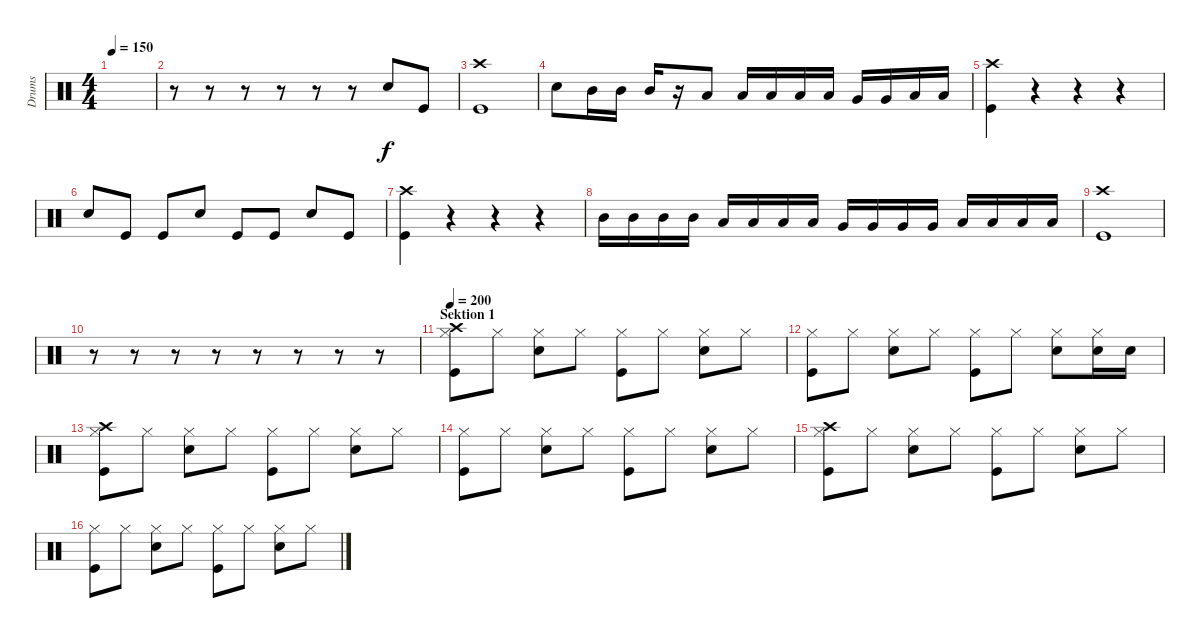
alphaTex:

\track ("Drums" "Drums") {instrument percussion}
\staff {score}
\articulation defaults
\ts (4 4)
\tempo 150
\clef neutral
\ks c
|
r.8 r.8 r.8 r.8 r.8 r.8 "Electric Snare (hit)".8 "Kick (hit)".8 |
("Crash high (hit)" "Kick (hit)").1 |
"Electric Snare (hit)".8 "Mid Tom (hit)".16 "Mid Tom (hit)".16 "Mid Tom (hit)".16 r.16 "Low Tom (hit)".8 "Low Tom (hit)".16 "Low Tom (hit)".16 "Low Tom (hit)".16 "Low Tom (hit)".16 "Very Low Tom (hit)".16 "Very Low Tom (hit)".16 "Low Floor Tom (hit)".16 "Low Floor Tom (hit)".16 |
("Crash high (hit)" "Kick (hit)").4 r.4 r.4 r.4 |
"Electric Snare (hit)".8 "Kick (hit)".8 "Kick (hit)".8 "Electric Snare (hit)".8 "Kick (hit)".8 "Kick (hit)".8 "Electric Snare (hit)".8 "Kick (hit)".8 |
("Crash high (hit)" "Kick (hit)").4 r.4 r.4 r.4 |
"Mid Tom (hit)".16 "Mid Tom (hit)".16 "Mid Tom (hit)".16 "Mid Tom (hit)".16 "Low Tom (hit)".16 "Low Tom (hit)".16 "Low Tom (hit)".16 "Low Tom (hit)".16 "Very Low Tom (hit)".16 "Very Low Tom (hit)".16 "Very Low Tom (hit)".16 "Very Low Tom (hit)".16 "Low Floor Tom (hit)".16 "Low Floor Tom (hit)".16 "Low Floor Tom (hit)".16 "Low Floor Tom (hit)".16 |
("Crash high (hit)" "Kick (hit)").1 |
r.8 r.8 r.8 r.8 r.8 r.8 r.8 r.8 |
\section ("" "Sektion 1")
\tempo 200
("Hi-Hat (closed)" "Crash high (hit)" "Kick (hit)").8 "Hi-Hat (closed)".8 ("Hi-Hat (closed)" "Electric Snare (hit)").8 "Hi-Hat (closed)".8 ("Hi-Hat (closed)" "Kick (hit)").8 "Hi-Hat (closed)".8 ("Hi-Hat (closed)" "Electric Snare (hit)").8 "Hi-Hat (closed)".8 |
("Hi-Hat (closed)" "Kick (hit)").8 "Hi-Hat (closed)".8 ("Hi-Hat (closed)" "Electric Snare (hit)").8 "Hi-Hat (closed)".8 ("Hi-Hat (closed)" "Kick (hit)").8 "Hi-Hat (closed)".8 ("Hi-Hat (closed)" "Electric Snare (hit)").8 ("Hi-Hat (closed)" "Electric Snare (hit)").16 "Electric Snare (hit)".16 |
("Hi-Hat (closed)" "Crash high (hit)" "Kick (hit)").8 "Hi-Hat (closed)".8 ("Hi-Hat (closed)" "Electric Snare (hit)").8 "Hi-Hat (closed)".8 ("Hi-Hat (closed)" "Kick (hit)").8 "Hi-Hat (closed)".8 ("Hi-Hat (closed)" "Electric Snare (hit)").8 "Hi-Hat (closed)".8 |
("Hi-Hat (closed)" "Kick (hit)").8 "Hi-Hat (closed)".8 ("Hi-Hat (closed)" "Electric Snare (hit)").8 "Hi-Hat (closed)".8 ("Hi-Hat (closed)" "Kick (hit)").8 "Hi-Hat (closed)".8 ("Hi-Hat (closed)" "Electric Snare (hit)").8 "Hi-Hat (closed)".8 |
("Hi-Hat (closed)" "Crash high (hit)" "Kick (hit)").8 "Hi-Hat (closed)".8 ("Hi-Hat (closed)" "Electric Snare (hit)").8 "Hi-Hat (closed)".8 ("Hi-Hat (closed)" "Kick (hit)").8 "Hi-Hat (closed)".8 ("Hi-Hat (closed)" "Electric Snare (hit)").8 "Hi-Hat (closed)".8 |
("Hi-Hat (closed)" "Kick (hit)").8 "Hi-Hat (closed)".8 ("Hi-Hat (closed)" "Electric Snare (hit)").8 "Hi-Hat (closed)".8 ("Hi-Hat (closed)" "Kick (hit)").8 "Hi-Hat (closed)".8 ("Hi-Hat (closed)" "Electric Snare (hit)").8 "Hi-Hat (closed)".8
